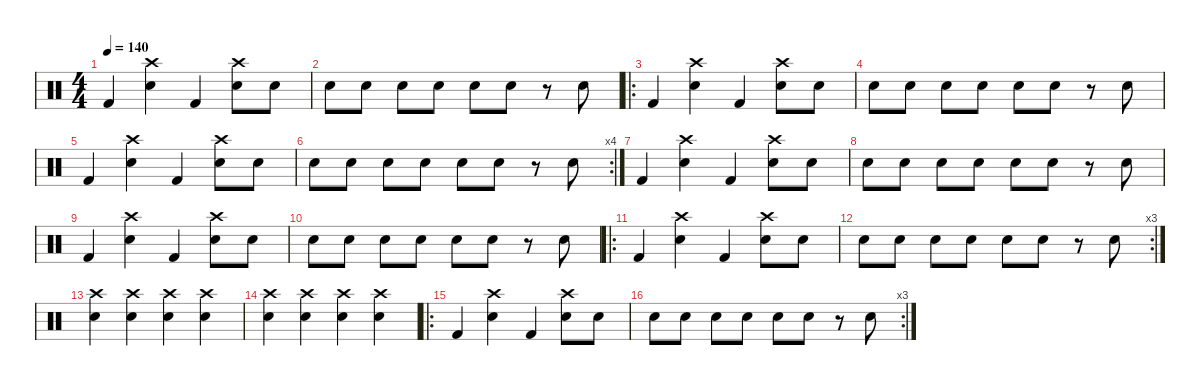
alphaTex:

\defaultSystemsLayout 4
\hideDynamics
\bracketExtendMode nobrackets
\singleTrackTrackNamePolicy hidden
\multiTrackTrackNamePolicy hidden
\otherSystemsTrackNameOrientation horizontal
\track ("Charlie Watts" "drm.") {instrument percussion}
\staff {score}
\articulation defaults
\ts (4 4)
\tempo 140
\clef neutral
\ks c "Kick (hit) 2".4{dy f beam Up}
("Snare (hit) 2" "Crash high (hit)").4{beam Down} "Kick (hit) 2".4{beam Up} ("Snare (hit) 2" "Crash high (hit)").8{beam Down} "Snare (hit) 2".8{beam Down} |
"Snare (hit) 2".8{beam Down} "Snare (hit) 2".8{beam Down} "Snare (hit) 2".8{beam Down} "Snare (hit) 2".8{beam Down} "Snare (hit) 2".8{beam Down} "Snare (hit) 2".8{beam Down} r.8{beam Down} "Snare (hit) 2".8{beam Down} |
\ro "Kick (hit) 2".4{beam Up}
("Snare (hit) 2" "Crash high (hit)").4{beam Down} "Kick (hit) 2".4{beam Up} ("Snare (hit) 2" "Crash high (hit)").8{beam Down} "Snare (hit) 2".8{beam Down} |
"Snare (hit) 2".8{beam Down} "Snare (hit) 2".8{beam Down} "Snare (hit) 2".8{beam Down} "Snare (hit) 2".8{beam Down} "Snare (hit) 2".8{beam Down} "Snare (hit) 2".8{beam Down} r.8{beam Down} "Snare (hit) 2".8{beam Down} |
"Kick (hit) 2".4{beam Up} ("Snare (hit) 2" "Crash high (hit)").4{beam Down} "Kick (hit) 2".4{beam Up} ("Snare (hit) 2" "Crash high (hit)").8{beam Down} "Snare (hit) 2".8{beam Down} |
\rc 4 "Snare (hit) 2".8{beam Down} "Snare (hit) 2".8{beam Down} "Snare (hit) 2".8{beam Down} "Snare (hit) 2".8{beam Down} "Snare (hit) 2".8{beam Down} "Snare (hit) 2".8{beam Down}
r.8{beam Down} "Snare (hit) 2".8{beam Down} |
"Kick (hit) 2".4{beam Up} ("Snare (hit) 2" "Crash high (hit)").4{beam Down} "Kick (hit) 2".4{beam Up} ("Snare (hit) 2" "Crash high (hit)").8{beam Down} "Snare (hit) 2".8{beam Down} |
"Snare (hit) 2".8{beam Down} "Snare (hit) 2".8{beam Down} "Snare (hit) 2".8{beam Down} "Snare (hit) 2".8{beam Down} "Snare (hit) 2".8{beam Down} "Snare (hit) 2".8{beam Down} r.8{beam Down} "Snare (hit) 2".8{beam Down} |
"Kick (hit) 2".4{beam Up} ("Snare (hit) 2" "Crash high (hit)").4{beam Down} "Kick (hit) 2".4{beam Up} ("Snare (hit) 2" "Crash high (hit)").8{beam Down} "Snare (hit) 2".8{beam Down} |
"Snare (hit) 2".8{beam Down} "Snare (hit) 2".8{beam Down} "Snare (hit) 2".8{beam Down} "Snare (hit) 2".8{beam Down} "Snare (hit) 2".8{beam Down} "Snare (hit) 2".8{beam Down} r.8{beam Down} "Snare (hit) 2".8{beam Down} |
\ro "Kick (hit) 2".4{beam Up}
("Snare (hit) 2" "Crash high (hit)").4{beam Down} "Kick (hit) 2".4{beam Up} ("Snare (hit) 2" "Crash high (hit)").8{beam Down} "Snare (hit) 2".8{beam Down} |
\rc 3 "Snare (hit) 2".8{beam Down} "Snare (hit) 2".8{beam Down} "Snare (hit) 2".8{beam Down} "Snare (hit) 2".8{beam Down} "Snare (hit) 2".8{beam Down} "Snare (hit) 2".8{beam Down}
r.8{beam Down} "Snare (hit) 2".8{beam Down} |
("Snare (hit) 2" "Crash high (hit)").4{beam Down} ("Snare (hit) 2" "Crash high (hit)").4{beam Down} ("Snare (hit) 2" "Crash high (hit)").4{beam Down} ("Snare (hit) 2" "Crash high (hit)").4{beam Down} |
("Snare (hit) 2" "Crash high (hit)").4{beam Down} ("Snare (hit) 2" "Crash high (hit)").4{beam Down} ("Snare (hit) 2" "Crash high (hit)").4{beam Down} ("Snare (hit) 2" "Crash high (hit)").4{beam Down} |
\ro "Kick (hit) 2".4{beam Up}
("Snare (hit) 2" "Crash high (hit)").4{beam Down} "Kick (hit) 2".4{beam Up} ("Snare (hit) 2" "Crash high (hit)").8{beam Down} "Snare (hit) 2".8{beam Down} |
\rc 3 "Snare (hit) 2".8{beam Down} "Snare (hit) 2".8{beam Down} "Snare (hit) 2".8{beam Down} "Snare (hit) 2".8{beam Down} "Snare (hit) 2".8{beam Down} "Snare (hit) 2".8{beam Down}
r.8{beam Down} "Snare (hit) 2".8{beam Down}
